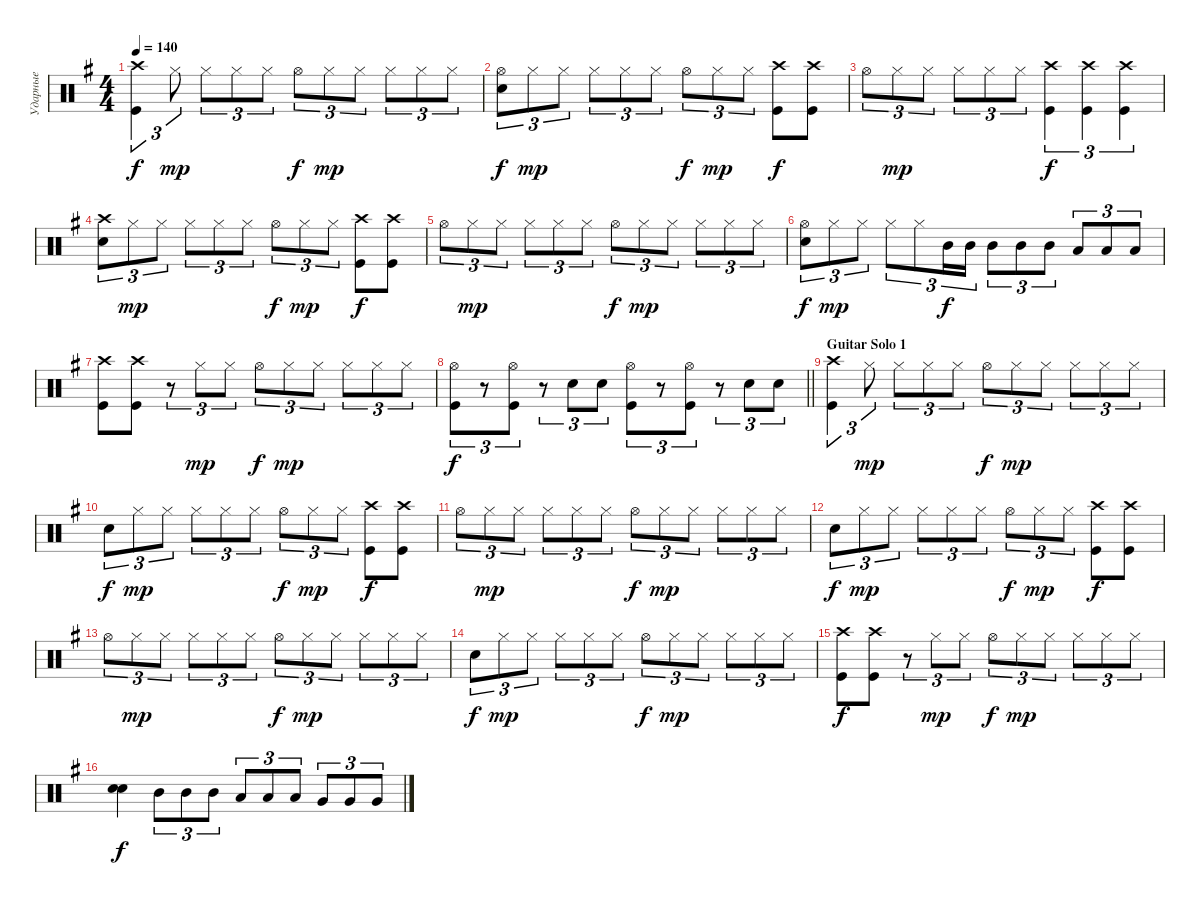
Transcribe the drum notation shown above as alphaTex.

\track ("Ударные" "Ударные") {instrument percussion}
\staff {score}
\articulation defaults
\ts (4 4)
\tempo 140
\clef neutral
\ks eminor
("Kick (hit)" "Crash high (hit)").4{tu (3 2) dy f} "Hi-Hat (closed)".8{tu (3 2) dy mp} "Hi-Hat (closed)".8{tu (3 2)} "Hi-Hat (closed)".8{tu (3 2)} "Hi-Hat (closed)".8{tu (3 2)} "Hi-Hat (open)".8{tu (3 2) dy f} "Hi-Hat (closed)".8{tu (3 2) dy mp} "Hi-Hat (closed)".8{tu (3 2)} "Hi-Hat (closed)".8{tu (3 2)} "Hi-Hat (closed)".8{tu (3 2)} "Hi-Hat (closed)".8{tu (3 2)} |
("Hi-Hat (open)" "Snare (hit) 2").8{tu (3 2) dy f} "Hi-Hat (closed)".8{tu (3 2) dy mp} "Hi-Hat (closed)".8{tu (3 2)} "Hi-Hat (closed)".8{tu (3 2)} "Hi-Hat (closed)".8{tu (3 2)} "Hi-Hat (closed)".8{tu (3 2)} "Hi-Hat (open)".8{tu (3 2) dy f} "Hi-Hat (closed)".8{tu (3 2) dy mp} "Hi-Hat (closed)".8{tu (3 2)} ("Kick (hit)" "Crash high (hit)").8{dy f} ("Kick (hit)" "Crash high (hit)").8 |
"Hi-Hat (open)".8{tu (3 2)} "Hi-Hat (closed)".8{tu (3 2) dy mp} "Hi-Hat (closed)".8{tu (3 2)} "Hi-Hat (closed)".8{tu (3 2)} "Hi-Hat (closed)".8{tu (3 2)} "Hi-Hat (closed)".8{tu (3 2)} ("Crash high (hit)" "Kick (hit)").4{tu (3 2) dy f} ("Kick (hit)" "Crash high (hit)").4{tu (3 2)} ("Kick (hit)" "Crash high (hit)").4{tu (3 2)} |
("Crash high (hit)" "Snare (hit) 2").8{tu (3 2)} "Hi-Hat (closed)".8{tu (3 2) dy mp} "Hi-Hat (closed)".8{tu (3 2)} "Hi-Hat (closed)".8{tu (3 2)} "Hi-Hat (closed)".8{tu (3 2)} "Hi-Hat (closed)".8{tu (3 2)} "Hi-Hat (open)".8{tu (3 2) dy f} "Hi-Hat (closed)".8{tu (3 2) dy mp} "Hi-Hat (closed)".8{tu (3 2)} ("Kick (hit)" "Crash high (hit)").8{dy f} ("Kick (hit)" "Crash high (hit)").8 |
"Hi-Hat (open)".8{tu (3 2)} "Hi-Hat (closed)".8{tu (3 2) dy mp} "Hi-Hat (closed)".8{tu (3 2)} "Hi-Hat (closed)".8{tu (3 2)} "Hi-Hat (closed)".8{tu (3 2)} "Hi-Hat (closed)".8{tu (3 2)} "Hi-Hat (open)".8{tu (3 2) dy f} "Hi-Hat (closed)".8{tu (3 2) dy mp} "Hi-Hat (closed)".8{tu (3 2)} "Hi-Hat (closed)".8{tu (3 2)} "Hi-Hat (closed)".8{tu (3 2)} "Hi-Hat (closed)".8{tu (3 2)} |
("Hi-Hat (open)" "Snare (hit) 2").8{tu (3 2) dy f} "Hi-Hat (closed)".8{tu (3 2) dy mp} "Hi-Hat (closed)".8{tu (3 2)} "Hi-Hat (closed)".8{tu (3 2)} "Hi-Hat (closed)".8{tu (3 2)} "Mid Tom (hit)".16{tu (3 2) dy f} "Mid Tom (hit)".16{tu (3 2)} "Mid Tom (hit)".8{tu (3 2)} "Mid Tom (hit)".8{tu (3 2)} "Mid Tom (hit)".8{tu (3 2)} "Low Tom (hit)".8{tu (3 2)} "Low Tom (hit)".8{tu (3 2)} "Low Tom (hit)".8{tu (3 2)} |
("Kick (hit)" "Crash high (hit)").8 ("Crash high (hit)" "Kick (hit)").8 r.8{tu (3 2)} "Hi-Hat (closed)".8{tu (3 2) dy mp} "Hi-Hat (closed)".8{tu (3 2)} "Hi-Hat (open)".8{tu (3 2) dy f} "Hi-Hat (closed)".8{tu (3 2) dy mp} "Hi-Hat (closed)".8{tu (3 2)} "Hi-Hat (closed)".8{tu (3 2)} "Hi-Hat (closed)".8{tu (3 2)} "Hi-Hat (closed)".8{tu (3 2)} |
\barLineRight lightlight
("Kick (hit)" "Hi-Hat (open)").8{tu (3 2) dy f} r.8{tu (3 2)} ("Kick (hit)" "Hi-Hat (open)").8{tu (3 2)} r.8{tu (3 2)} "Snare (hit) 2".8{tu (3 2)} "Snare (hit) 2".8{tu (3 2)} ("Kick (hit)" "Hi-Hat (open)").8{tu (3 2)} r.8{tu (3 2)} ("Kick (hit)" "Hi-Hat (open)").8{tu (3 2)} r.8{tu (3 2)} "Snare (hit) 2".8{tu (3 2)} "Snare (hit) 2".8{tu (3 2)} |
\section ("" "Guitar Solo 1")
("Kick (hit)" "Crash high (hit)").4{tu (3 2)} "Hi-Hat (closed)".8{tu (3 2) dy mp} "Hi-Hat (closed)".8{tu (3 2)} "Hi-Hat (closed)".8{tu (3 2)} "Hi-Hat (closed)".8{tu (3 2)} "Hi-Hat (open)".8{tu (3 2) dy f} "Hi-Hat (closed)".8{tu (3 2) dy mp} "Hi-Hat (closed)".8{tu (3 2)} "Hi-Hat (closed)".8{tu (3 2)} "Hi-Hat (closed)".8{tu (3 2)} "Hi-Hat (closed)".8{tu (3 2)} |
"Snare (hit) 2".8{tu (3 2) dy f} "Hi-Hat (closed)".8{tu (3 2) dy mp} "Hi-Hat (closed)".8{tu (3 2)} "Hi-Hat (closed)".8{tu (3 2)} "Hi-Hat (closed)".8{tu (3 2)} "Hi-Hat (closed)".8{tu (3 2)} "Hi-Hat (open)".8{tu (3 2) dy f} "Hi-Hat (closed)".8{tu (3 2) dy mp} "Hi-Hat (closed)".8{tu (3 2)} ("Kick (hit)" "Crash high (hit)").8{dy f} ("Kick (hit)" "Crash high (hit)").8 |
"Hi-Hat (open)".8{tu (3 2)} "Hi-Hat (closed)".8{tu (3 2) dy mp} "Hi-Hat (closed)".8{tu (3 2)} "Hi-Hat (closed)".8{tu (3 2)} "Hi-Hat (closed)".8{tu (3 2)} "Hi-Hat (closed)".8{tu (3 2)} "Hi-Hat (open)".8{tu (3 2) dy f} "Hi-Hat (closed)".8{tu (3 2) dy mp} "Hi-Hat (closed)".8{tu (3 2)} "Hi-Hat (closed)".8{tu (3 2)} "Hi-Hat (closed)".8{tu (3 2)} "Hi-Hat (closed)".8{tu (3 2)} |
"Snare (hit) 2".8{tu (3 2) dy f} "Hi-Hat (closed)".8{tu (3 2) dy mp} "Hi-Hat (closed)".8{tu (3 2)} "Hi-Hat (closed)".8{tu (3 2)} "Hi-Hat (closed)".8{tu (3 2)} "Hi-Hat (closed)".8{tu (3 2)} "Hi-Hat (open)".8{tu (3 2) dy f} "Hi-Hat (closed)".8{tu (3 2) dy mp} "Hi-Hat (closed)".8{tu (3 2)} ("Kick (hit)" "Crash high (hit)").8{dy f} ("Kick (hit)" "Crash high (hit)").8 |
"Hi-Hat (open)".8{tu (3 2)} "Hi-Hat (closed)".8{tu (3 2) dy mp} "Hi-Hat (closed)".8{tu (3 2)} "Hi-Hat (closed)".8{tu (3 2)} "Hi-Hat (closed)".8{tu (3 2)} "Hi-Hat (closed)".8{tu (3 2)} "Hi-Hat (open)".8{tu (3 2) dy f} "Hi-Hat (closed)".8{tu (3 2) dy mp} "Hi-Hat (closed)".8{tu (3 2)} "Hi-Hat (closed)".8{tu (3 2)} "Hi-Hat (closed)".8{tu (3 2)} "Hi-Hat (closed)".8{tu (3 2)} |
"Snare (hit) 2".8{tu (3 2) dy f} "Hi-Hat (closed)".8{tu (3 2) dy mp} "Hi-Hat (closed)".8{tu (3 2)} "Hi-Hat (closed)".8{tu (3 2)} "Hi-Hat (closed)".8{tu (3 2)} "Hi-Hat (closed)".8{tu (3 2)} "Hi-Hat (open)".8{tu (3 2) dy f} "Hi-Hat (closed)".8{tu (3 2) dy mp} "Hi-Hat (closed)".8{tu (3 2)} "Hi-Hat (closed)".8{tu (3 2)} "Hi-Hat (closed)".8{tu (3 2)} "Hi-Hat (closed)".8{tu (3 2)} |
("Kick (hit)" "Crash high (hit)").8{dy f} ("Crash high (hit)" "Kick (hit)").8 r.8{tu (3 2)} "Hi-Hat (closed)".8{tu (3 2) dy mp} "Hi-Hat (closed)".8{tu (3 2)} "Hi-Hat (open)".8{tu (3 2) dy f} "Hi-Hat (closed)".8{tu (3 2) dy mp} "Hi-Hat (closed)".8{tu (3 2)} "Hi-Hat (closed)".8{tu (3 2)} "Hi-Hat (closed)".8{tu (3 2)} "Hi-Hat (closed)".8{tu (3 2)} |
("Snare (hit) 2" "Snare (hit) 2").4{bd 240 dy f} "Mid Tom (hit)".8{tu (3 2)} "Mid Tom (hit)".8{tu (3 2)} "Mid Tom (hit)".8{tu (3 2)} "Low Tom (hit)".8{tu (3 2)} "Low Tom (hit)".8{tu (3 2)} "Low Tom (hit)".8{tu (3 2)} "Very Low Tom (hit)".8{tu (3 2)} "Very Low Tom (hit)".8{tu (3 2)} "Very Low Tom (hit)".8{tu (3 2)}
